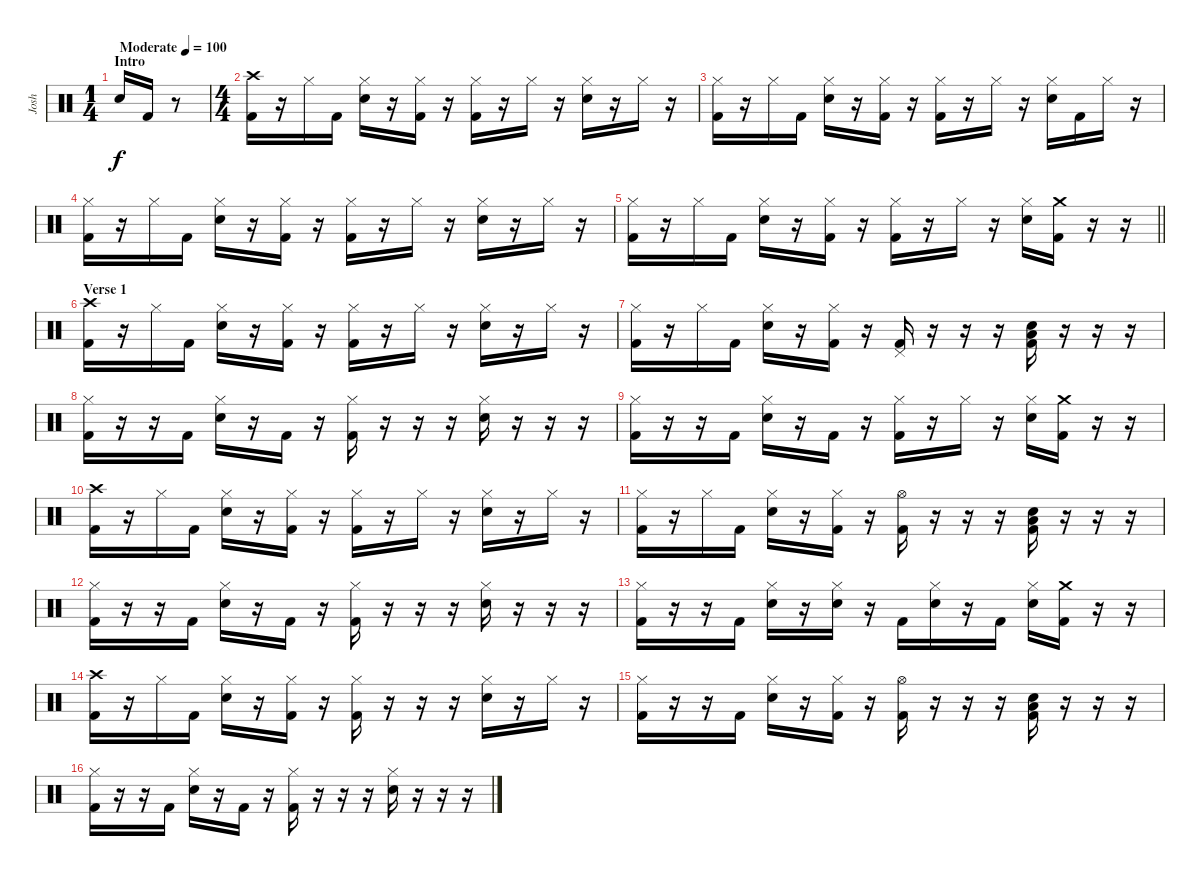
\track ("Josh" "Josh") {instrument percussion}
\staff {score}
\articulation defaults
\ts (1 4)
\section ("" "Intro")
\tempo (100 "Moderate")
\clef neutral
\ks c "Snare (hit) 2".16{dy f} "Kick (hit) 2".16
r.8 |
\ts (4 4)
("Crash high (hit)" "Kick (hit) 2").16 r.16 "Hi-Hat (closed)".16 "Kick (hit) 2".16 ("Hi-Hat (closed)" "Snare (hit) 2").16 r.16 ("Hi-Hat (closed)" "Kick (hit) 2").16 r.16 ("Hi-Hat (closed)" "Kick (hit) 2").16 r.16 "Hi-Hat (closed)".16 r.16 ("Hi-Hat (closed)" "Snare (hit) 2").16 r.16 "Hi-Hat (closed)".16 r.16 |
("Hi-Hat (closed)" "Kick (hit) 2").16 r.16 "Hi-Hat (closed)".16 "Kick (hit) 2".16 ("Hi-Hat (closed)" "Snare (hit) 2").16 r.16 ("Hi-Hat (closed)" "Kick (hit) 2").16 r.16 ("Hi-Hat (closed)" "Kick (hit) 2").16 r.16 "Hi-Hat (closed)".16 r.16 ("Hi-Hat (closed)" "Snare (hit) 2").16 "Kick (hit) 2".16 "Hi-Hat (closed)".16 r.16 |
("Hi-Hat (closed)" "Kick (hit) 2").16 r.16 "Hi-Hat (closed)".16 "Kick (hit) 2".16 ("Hi-Hat (closed)" "Snare (hit) 2").16 r.16 ("Hi-Hat (closed)" "Kick (hit) 2").16 r.16 ("Hi-Hat (closed)" "Kick (hit) 2").16 r.16 "Hi-Hat (closed)".16 r.16 ("Hi-Hat (closed)" "Snare (hit) 2").16 r.16 "Hi-Hat (closed)".16 r.16 |
\barLineRight lightlight
("Hi-Hat (closed)" "Kick (hit) 2").16 r.16 "Hi-Hat (closed)".16 "Kick (hit) 2".16 ("Hi-Hat (closed)" "Snare (hit) 2").16 r.16 ("Hi-Hat (closed)" "Kick (hit) 2").16 r.16 ("Hi-Hat (closed)" "Kick (hit) 2").16 r.16 "Hi-Hat (closed)".16 r.16 ("Hi-Hat (closed)" "Snare (hit) 2").16 ("Crash medium (hit)" "Kick (hit) 2").16 r.16 r.16 |
\section ("" "Verse 1")
("Crash high (hit)" "Kick (hit) 2").16 r.16 "Hi-Hat (closed)".16 "Kick (hit) 2".16 ("Hi-Hat (closed)" "Snare (hit) 2").16 r.16 ("Hi-Hat (closed)" "Kick (hit) 2").16 r.16 ("Hi-Hat (closed)" "Kick (hit) 2").16 r.16 "Hi-Hat (closed)".16 r.16 ("Hi-Hat (closed)" "Snare (hit) 2").16 r.16 "Hi-Hat (closed)".16 r.16 |
("Hi-Hat (closed)" "Kick (hit) 2").16 r.16 "Hi-Hat (closed)".16 "Kick (hit) 2".16 ("Hi-Hat (closed)" "Snare (hit) 2").16 r.16 ("Hi-Hat (closed)" "Kick (hit) 2").16 r.16 ("Pedal Hi-Hat (hit)" "Kick (hit) 2").16 r.16 r.16 r.16 ("Snare (hit) 2" "Low Floor Tom (hit)" "Kick (hit) 2").16 r.16 r.16 r.16 |
("Hi-Hat (closed)" "Kick (hit) 2").16 r.16 r.16 "Kick (hit) 2".16 ("Hi-Hat (closed)" "Snare (hit) 2").16 r.16 "Kick (hit) 2".16 r.16 ("Hi-Hat (closed)" "Kick (hit) 2").16 r.16 r.16 r.16 ("Hi-Hat (closed)" "Snare (hit) 2").16 r.16 r.16 r.16 |
("Hi-Hat (closed)" "Kick (hit) 2").16 r.16 r.16 "Kick (hit) 2".16 ("Hi-Hat (closed)" "Snare (hit) 2").16 r.16 "Kick (hit) 2".16 r.16 ("Hi-Hat (closed)" "Kick (hit) 2").16 r.16 "Hi-Hat (closed)".16 r.16 ("Hi-Hat (closed)" "Snare (hit) 2").16 ("Crash medium (hit)" "Kick (hit) 2").16 r.16 r.16 |
("Crash high (hit)" "Kick (hit) 2").16 r.16 "Hi-Hat (closed)".16 "Kick (hit) 2".16 ("Hi-Hat (closed)" "Snare (hit) 2").16 r.16 ("Hi-Hat (closed)" "Kick (hit) 2").16 r.16 ("Hi-Hat (closed)" "Kick (hit) 2").16 r.16 "Hi-Hat (closed)".16 r.16 ("Hi-Hat (closed)" "Snare (hit) 2").16 r.16 "Hi-Hat (closed)".16 r.16 |
("Hi-Hat (closed)" "Kick (hit) 2").16 r.16 "Hi-Hat (closed)".16 "Kick (hit) 2".16 ("Hi-Hat (closed)" "Snare (hit) 2").16 r.16 ("Hi-Hat (closed)" "Kick (hit) 2").16 r.16 ("Hi-Hat (open)" "Kick (hit) 2").16 r.16 r.16 r.16 ("Snare (hit) 2" "Low Floor Tom (hit)" "Kick (hit) 2").16 r.16 r.16 r.16 |
("Hi-Hat (closed)" "Kick (hit) 2").16 r.16 r.16 "Kick (hit) 2".16 ("Hi-Hat (closed)" "Snare (hit) 2").16 r.16 "Kick (hit) 2".16 r.16 ("Hi-Hat (closed)" "Kick (hit) 2").16 r.16 r.16 r.16 ("Hi-Hat (closed)" "Snare (hit) 2").16 r.16 r.16 r.16 |
("Hi-Hat (closed)" "Kick (hit) 2").16 r.16 r.16 "Kick (hit) 2".16 ("Hi-Hat (closed)" "Snare (hit) 2").16 r.16 ("Hi-Hat (closed)" "Snare (hit) 2").16 r.16 "Kick (hit) 2".16 ("Hi-Hat (closed)" "Snare (hit) 2").16 r.16 "Kick (hit) 2".16 ("Hi-Hat (closed)" "Snare (hit) 2").16 ("Crash medium (hit)" "Kick (hit) 2").16 r.16 r.16 |
("Crash high (hit)" "Kick (hit) 2").16 r.16 "Hi-Hat (closed)".16 "Kick (hit) 2".16 ("Hi-Hat (closed)" "Snare (hit) 2").16 r.16 ("Hi-Hat (closed)" "Kick (hit) 2").16 r.16 ("Hi-Hat (closed)" "Kick (hit) 2").16 r.16 r.16 r.16 ("Hi-Hat (closed)" "Snare (hit) 2").16 r.16 "Hi-Hat (closed)".16 r.16 |
("Hi-Hat (closed)" "Kick (hit) 2").16 r.16 r.16 "Kick (hit) 2".16 ("Hi-Hat (closed)" "Snare (hit) 2").16 r.16 ("Hi-Hat (closed)" "Kick (hit) 2").16 r.16 ("Hi-Hat (open)" "Kick (hit) 2").16 r.16 r.16 r.16 ("Snare (hit) 2" "Low Floor Tom (hit)" "Kick (hit) 2").16 r.16 r.16 r.16 |
("Hi-Hat (closed)" "Kick (hit) 2").16 r.16 r.16 "Kick (hit) 2".16 ("Hi-Hat (closed)" "Snare (hit) 2").16 r.16 "Kick (hit) 2".16 r.16 ("Hi-Hat (closed)" "Kick (hit) 2").16 r.16 r.16 r.16 ("Hi-Hat (closed)" "Snare (hit) 2").16 r.16 r.16 r.16
